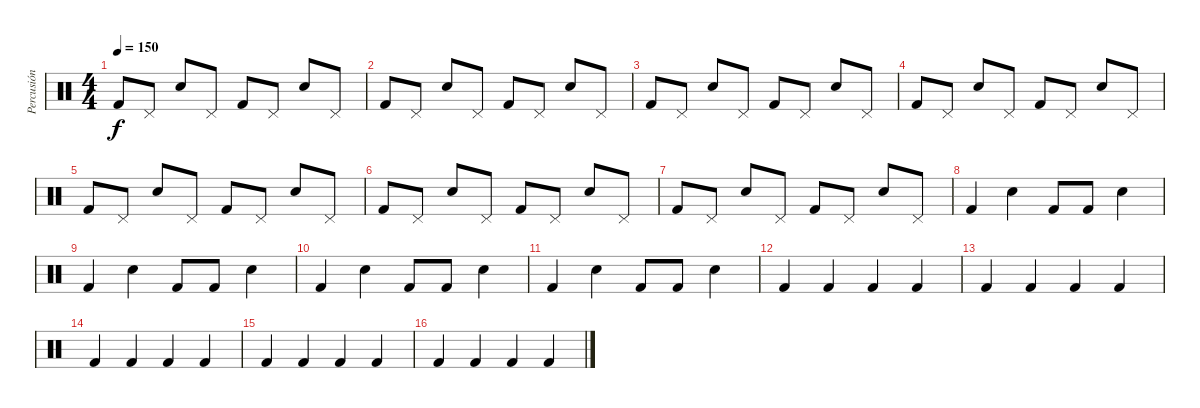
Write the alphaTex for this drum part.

\track ("Percusión" "Percusión") {instrument percussion}
\staff {score}
\articulation defaults
\ts (4 4)
\tempo 150
\clef neutral
\ks c "Kick (hit) 2".8{dy f} "Pedal Hi-Hat (hit)".8 "Snare (hit) 2".8 "Pedal Hi-Hat (hit)".8 "Kick (hit) 2".8 "Pedal Hi-Hat (hit)".8 "Snare (hit) 2".8 "Pedal Hi-Hat (hit)".8
|
"Kick (hit) 2".8 "Pedal Hi-Hat (hit)".8 "Snare (hit) 2".8 "Pedal Hi-Hat (hit)".8 "Kick (hit) 2".8 "Pedal Hi-Hat (hit)".8 "Snare (hit) 2".8 "Pedal Hi-Hat (hit)".8 |
"Kick (hit) 2".8 "Pedal Hi-Hat (hit)".8 "Snare (hit) 2".8 "Pedal Hi-Hat (hit)".8 "Kick (hit) 2".8 "Pedal Hi-Hat (hit)".8 "Snare (hit) 2".8 "Pedal Hi-Hat (hit)".8 |
"Kick (hit) 2".8 "Pedal Hi-Hat (hit)".8 "Snare (hit) 2".8 "Pedal Hi-Hat (hit)".8 "Kick (hit) 2".8 "Pedal Hi-Hat (hit)".8 "Snare (hit) 2".8 "Pedal Hi-Hat (hit)".8 |
"Kick (hit) 2".8 "Pedal Hi-Hat (hit)".8 "Snare (hit) 2".8 "Pedal Hi-Hat (hit)".8 "Kick (hit) 2".8 "Pedal Hi-Hat (hit)".8 "Snare (hit) 2".8 "Pedal Hi-Hat (hit)".8 |
"Kick (hit) 2".8 "Pedal Hi-Hat (hit)".8 "Snare (hit) 2".8 "Pedal Hi-Hat (hit)".8 "Kick (hit) 2".8 "Pedal Hi-Hat (hit)".8 "Snare (hit) 2".8 "Pedal Hi-Hat (hit)".8 |
"Kick (hit) 2".8 "Pedal Hi-Hat (hit)".8 "Snare (hit) 2".8 "Pedal Hi-Hat (hit)".8 "Kick (hit) 2".8 "Pedal Hi-Hat (hit)".8 "Snare (hit) 2".8 "Pedal Hi-Hat (hit)".8 |
"Kick (hit) 2".4 "Snare (hit) 2".4 "Kick (hit) 2".8 "Kick (hit) 2".8 "Snare (hit) 2".4 |
"Kick (hit) 2".4 "Snare (hit) 2".4 "Kick (hit) 2".8 "Kick (hit) 2".8 "Snare (hit) 2".4 |
"Kick (hit) 2".4 "Snare (hit) 2".4 "Kick (hit) 2".8 "Kick (hit) 2".8 "Snare (hit) 2".4 |
"Kick (hit) 2".4 "Snare (hit) 2".4 "Kick (hit) 2".8 "Kick (hit) 2".8 "Snare (hit) 2".4 |
"Kick (hit) 2".4 "Kick (hit) 2".4 "Kick (hit) 2".4 "Kick (hit) 2".4 |
"Kick (hit) 2".4 "Kick (hit) 2".4 "Kick (hit) 2".4 "Kick (hit) 2".4 |
"Kick (hit) 2".4 "Kick (hit) 2".4 "Kick (hit) 2".4 "Kick (hit) 2".4 |
"Kick (hit) 2".4 "Kick (hit) 2".4 "Kick (hit) 2".4 "Kick (hit) 2".4 |
"Kick (hit) 2".4 "Kick (hit) 2".4 "Kick (hit) 2".4 "Kick (hit) 2".4
